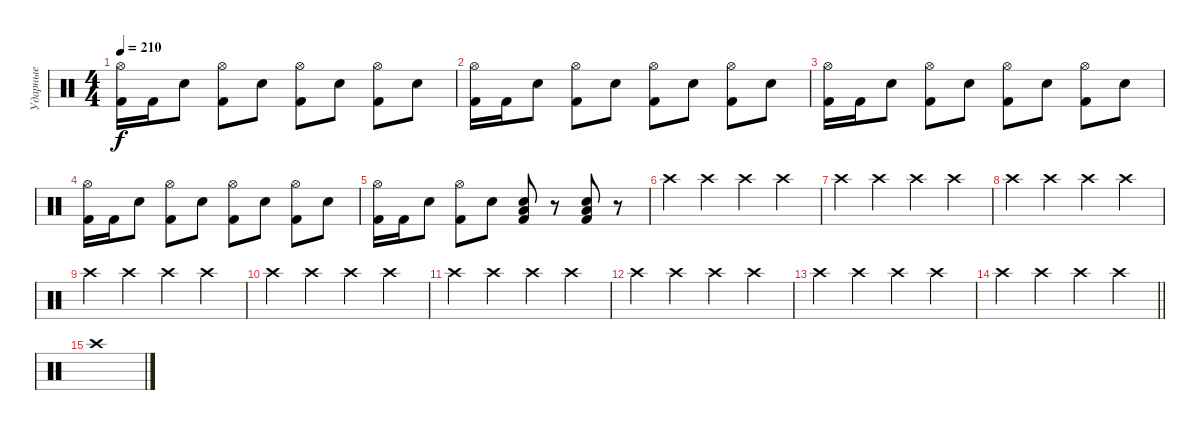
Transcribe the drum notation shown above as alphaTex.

\track ("Ударные" "Ударные") {instrument percussion}
\staff {score}
\articulation defaults
\ts (4 4)
\tempo 210
\clef neutral
\ks c
("Hi-Hat (open)" "Kick (hit) 2").16{dy f} "Kick (hit) 2".16 "Snare (hit) 2".8 ("Hi-Hat (open)" "Kick (hit) 2").8 "Snare (hit) 2".8 ("Hi-Hat (open)" "Kick (hit) 2").8 "Snare (hit) 2".8 ("Hi-Hat (open)" "Kick (hit) 2").8 "Snare (hit) 2".8 |
("Hi-Hat (open)" "Kick (hit) 2").16 "Kick (hit) 2".16 "Snare (hit) 2".8 ("Hi-Hat (open)" "Kick (hit) 2").8 "Snare (hit) 2".8 ("Hi-Hat (open)" "Kick (hit) 2").8 "Snare (hit) 2".8 ("Hi-Hat (open)" "Kick (hit) 2").8 "Snare (hit) 2".8 |
("Hi-Hat (open)" "Kick (hit) 2").16 "Kick (hit) 2".16 "Snare (hit) 2".8 ("Hi-Hat (open)" "Kick (hit) 2").8 "Snare (hit) 2".8 ("Hi-Hat (open)" "Kick (hit) 2").8 "Snare (hit) 2".8 ("Hi-Hat (open)" "Kick (hit) 2").8 "Snare (hit) 2".8 |
("Hi-Hat (open)" "Kick (hit) 2").16 "Kick (hit) 2".16 "Snare (hit) 2".8 ("Hi-Hat (open)" "Kick (hit) 2").8 "Snare (hit) 2".8 ("Hi-Hat (open)" "Kick (hit) 2").8 "Snare (hit) 2".8 ("Hi-Hat (open)" "Kick (hit) 2").8 "Snare (hit) 2".8 |
("Hi-Hat (open)" "Kick (hit) 2").16 "Kick (hit) 2".16 "Snare (hit) 2".8 ("Hi-Hat (open)" "Kick (hit) 2").8 "Snare (hit) 2".8 ("Low Tom (hit)" "Snare (hit) 2" "Kick (hit) 2").8 r.8 ("Low Tom (hit)" "Snare (hit) 2" "Kick (hit) 2").8 r.8 |
"Crash high (hit)".4 "Crash high (hit)".4 "Crash high (hit)".4 "Crash high (hit)".4 |
"Crash high (hit)".4 "Crash high (hit)".4 "Crash high (hit)".4 "Crash high (hit)".4 |
"Crash high (hit)".4 "Crash high (hit)".4 "Crash high (hit)".4 "Crash high (hit)".4 |
"Crash high (hit)".4 "Crash high (hit)".4 "Crash high (hit)".4 "Crash high (hit)".4 |
"Crash high (hit)".4 "Crash high (hit)".4 "Crash high (hit)".4 "Crash high (hit)".4 |
"Crash high (hit)".4 "Crash high (hit)".4 "Crash high (hit)".4 "Crash high (hit)".4 |
"Crash high (hit)".4 "Crash high (hit)".4 "Crash high (hit)".4 "Crash high (hit)".4 |
"Crash high (hit)".4 "Crash high (hit)".4 "Crash high (hit)".4 "Crash high (hit)".4 |
\barLineRight lightlight "Crash high (hit)".4 "Crash high (hit)".4 "Crash high (hit)".4 "Crash high (hit)".4
|
"Crash high (hit)".1
